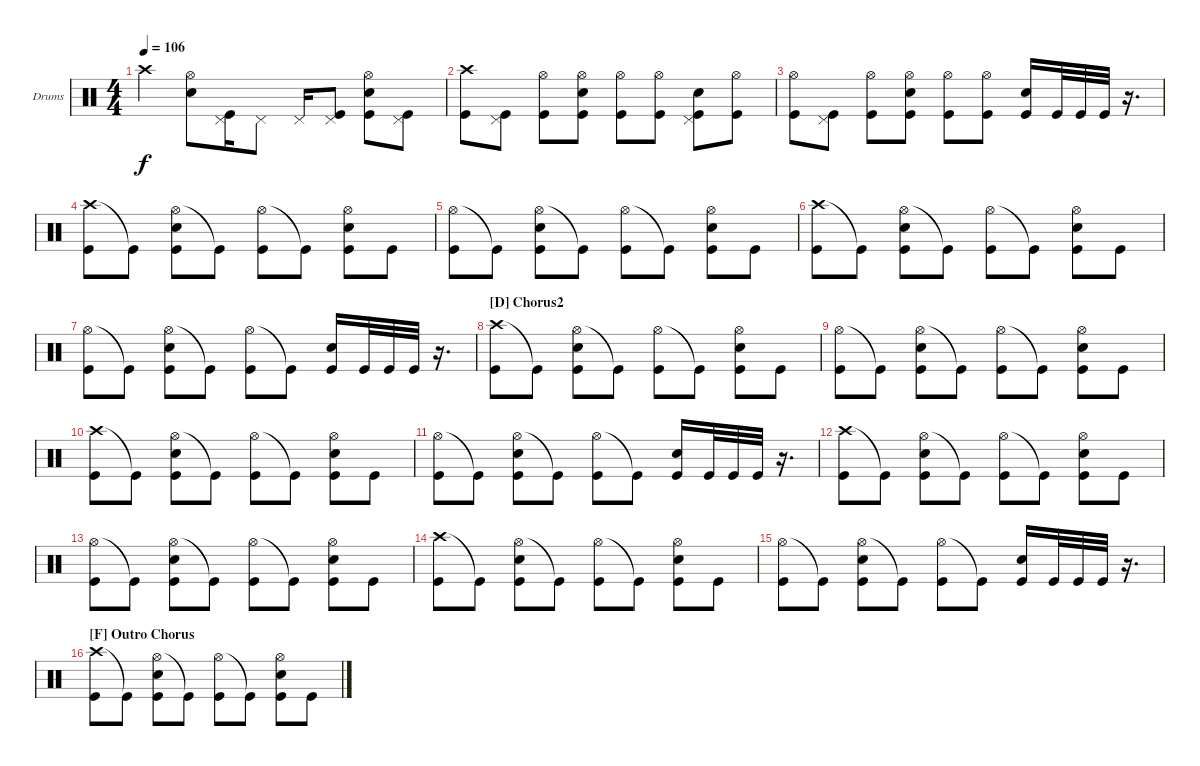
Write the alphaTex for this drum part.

\bracketExtendMode groupsimilarinstruments
\firstSystemTrackNameOrientation horizontal
\otherSystemsTrackNameOrientation horizontal
\track ("Drumkit" "Drums") {instrument percussion}
\staff {score}
\articulation defaults
\ts (4 4)
\tempo 106
\clef neutral
\ks c "Crash high (hit)".4{dy f}
("Hi-Hat (open)" "Snare (hit) 2").8 ("Pedal Hi-Hat (hit)" "Kick (hit)").16 "Pedal Hi-Hat (hit)".8 "Pedal Hi-Hat (hit)".16 ("Pedal Hi-Hat (hit)" "Kick (hit)").8 ("Hi-Hat (open)" "Snare (hit) 2" "Kick (hit)").8 ("Pedal Hi-Hat (hit)" "Kick (hit)").8 |
("Crash high (hit)" "Kick (hit)").8 ("Pedal Hi-Hat (hit)" "Kick (hit)").8 ("Hi-Hat (open)" "Kick (hit)").8 ("Hi-Hat (open)" "Snare (hit) 2" "Kick (hit)").8 ("Hi-Hat (open)" "Kick (hit)").8 ("Hi-Hat (open)" "Kick (hit)").8 ("Pedal Hi-Hat (hit)" "Snare (hit) 2" "Kick (hit)").8 ("Hi-Hat (open)" "Kick (hit)").8 |
("Hi-Hat (open)" "Kick (hit)").8 ("Pedal Hi-Hat (hit)" "Kick (hit)").8 ("Hi-Hat (open)" "Kick (hit)").8 ("Hi-Hat (open)" "Snare (hit) 2" "Kick (hit)").8 ("Hi-Hat (open)" "Kick (hit)").8 ("Hi-Hat (open)" "Kick (hit)").8 ("Snare (hit) 2" "Kick (hit)").16 "Kick (hit)".32 "Kick (hit)".32 "Kick (hit)".32 r.16{d} |
("Crash high (hit)" "Kick (hit)").8 "Kick (hit)"{t}.8 ("Hi-Hat (open)" "Snare (hit) 2" "Kick (hit)").8 "Kick (hit)"{t}.8 ("Hi-Hat (open)" "Kick (hit)").8 "Kick (hit)"{t}.8 ("Hi-Hat (open)" "Snare (hit) 2" "Kick (hit)").8 "Kick (hit)".8 |
("Hi-Hat (open)" "Kick (hit)").8 "Kick (hit)"{t}.8 ("Hi-Hat (open)" "Snare (hit) 2" "Kick (hit)").8 "Kick (hit)"{t}.8 ("Hi-Hat (open)" "Kick (hit)").8 "Kick (hit)"{t}.8 ("Hi-Hat (open)" "Snare (hit) 2" "Kick (hit)").8 "Kick (hit)".8 |
("Crash high (hit)" "Kick (hit)").8 "Kick (hit)"{t}.8 ("Hi-Hat (open)" "Snare (hit) 2" "Kick (hit)").8 "Kick (hit)"{t}.8 ("Hi-Hat (open)" "Kick (hit)").8 "Kick (hit)"{t}.8 ("Hi-Hat (open)" "Snare (hit) 2" "Kick (hit)").8 "Kick (hit)".8 |
("Hi-Hat (open)" "Kick (hit)").8 "Kick (hit)"{t}.8 ("Hi-Hat (open)" "Snare (hit) 2" "Kick (hit)").8 "Kick (hit)"{t}.8 ("Hi-Hat (open)" "Kick (hit)").8 "Kick (hit)"{t}.8 ("Snare (hit) 2" "Kick (hit)").16 "Kick (hit)".32 "Kick (hit)".32 "Kick (hit)".32 r.16{d} |
\section ("D" "Chorus2")
("Crash high (hit)" "Kick (hit)").8 "Kick (hit)"{t}.8 ("Hi-Hat (open)" "Snare (hit) 2" "Kick (hit)").8 "Kick (hit)"{t}.8 ("Hi-Hat (open)" "Kick (hit)").8 "Kick (hit)"{t}.8 ("Hi-Hat (open)" "Snare (hit) 2" "Kick (hit)").8 "Kick (hit)".8 |
("Hi-Hat (open)" "Kick (hit)").8 "Kick (hit)"{t}.8 ("Hi-Hat (open)" "Snare (hit) 2" "Kick (hit)").8 "Kick (hit)"{t}.8 ("Hi-Hat (open)" "Kick (hit)").8 "Kick (hit)"{t}.8 ("Hi-Hat (open)" "Snare (hit) 2" "Kick (hit)").8 "Kick (hit)".8 |
("Crash high (hit)" "Kick (hit)").8 "Kick (hit)"{t}.8 ("Hi-Hat (open)" "Snare (hit) 2" "Kick (hit)").8 "Kick (hit)"{t}.8 ("Hi-Hat (open)" "Kick (hit)").8 "Kick (hit)"{t}.8 ("Hi-Hat (open)" "Snare (hit) 2" "Kick (hit)").8 "Kick (hit)".8 |
("Hi-Hat (open)" "Kick (hit)").8 "Kick (hit)"{t}.8 ("Hi-Hat (open)" "Snare (hit) 2" "Kick (hit)").8 "Kick (hit)"{t}.8 ("Hi-Hat (open)" "Kick (hit)").8 "Kick (hit)"{t}.8 ("Snare (hit) 2" "Kick (hit)").16 "Kick (hit)".32 "Kick (hit)".32 "Kick (hit)".32 r.16{d} |
("Crash high (hit)" "Kick (hit)").8 "Kick (hit)"{t}.8 ("Hi-Hat (open)" "Snare (hit) 2" "Kick (hit)").8 "Kick (hit)"{t}.8 ("Hi-Hat (open)" "Kick (hit)").8 "Kick (hit)"{t}.8 ("Hi-Hat (open)" "Snare (hit) 2" "Kick (hit)").8 "Kick (hit)".8 |
("Hi-Hat (open)" "Kick (hit)").8 "Kick (hit)"{t}.8 ("Hi-Hat (open)" "Snare (hit) 2" "Kick (hit)").8 "Kick (hit)"{t}.8 ("Hi-Hat (open)" "Kick (hit)").8 "Kick (hit)"{t}.8 ("Hi-Hat (open)" "Snare (hit) 2" "Kick (hit)").8 "Kick (hit)".8 |
("Crash high (hit)" "Kick (hit)").8 "Kick (hit)"{t}.8 ("Hi-Hat (open)" "Snare (hit) 2" "Kick (hit)").8 "Kick (hit)"{t}.8 ("Hi-Hat (open)" "Kick (hit)").8 "Kick (hit)"{t}.8 ("Hi-Hat (open)" "Snare (hit) 2" "Kick (hit)").8 "Kick (hit)".8 |
("Hi-Hat (open)" "Kick (hit)").8 "Kick (hit)"{t}.8 ("Hi-Hat (open)" "Snare (hit) 2" "Kick (hit)").8 "Kick (hit)"{t}.8 ("Hi-Hat (open)" "Kick (hit)").8 "Kick (hit)"{t}.8 ("Snare (hit) 2" "Kick (hit)").16 "Kick (hit)".32 "Kick (hit)".32 "Kick (hit)".32 r.16{d} |
\section ("F" "Outro Chorus")
("Crash high (hit)" "Kick (hit)").8 "Kick (hit)"{t}.8 ("Hi-Hat (open)" "Snare (hit) 2" "Kick (hit)").8 "Kick (hit)"{t}.8 ("Hi-Hat (open)" "Kick (hit)").8 "Kick (hit)"{t}.8 ("Hi-Hat (open)" "Snare (hit) 2" "Kick (hit)").8 "Kick (hit)".8
